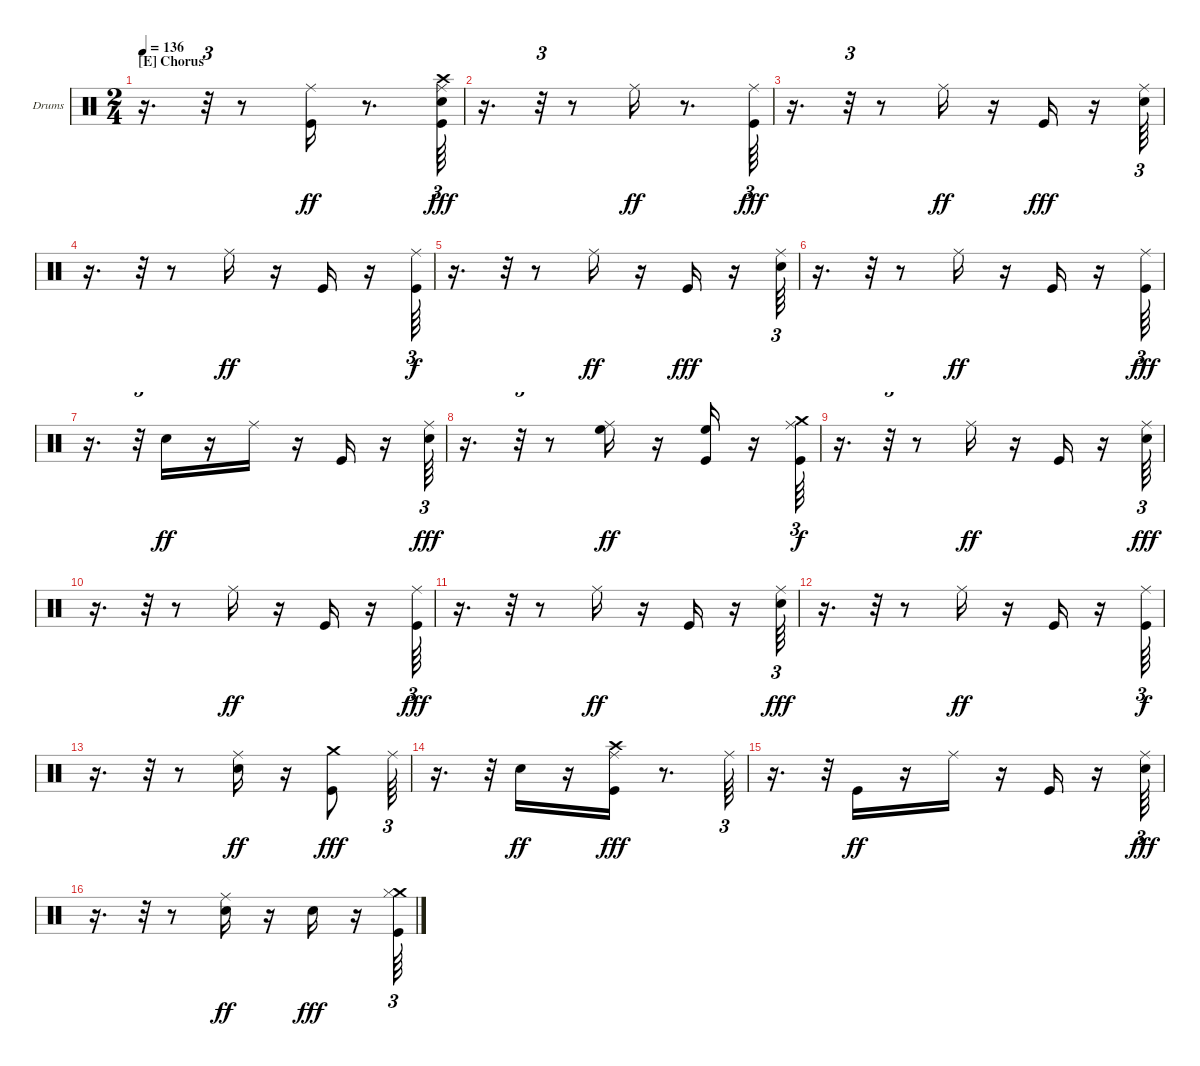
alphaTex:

\bracketExtendMode groupsimilarinstruments
\firstSystemTrackNameOrientation horizontal
\otherSystemsTrackNameOrientation horizontal
\track ("Drumkit" "Drums") {solo instrument percussion}
\staff {score}
\articulation defaults
\ts (2 4)
\section ("E" "Chorus")
\tempo 136
\clef neutral
\ks c
r.16{d dy fff} r.32{tu (3 2)} r.8 ("Ride (middle)" "Kick (hit)").16{dy ff} r.8{d} ("Crash high (hit)" "Ride (middle)" "Kick (hit)" "Snare (hit) 2").64{tu (3 2) dy fff} |
r.16{d} r.32{tu (3 2)} r.8 "Ride (middle)".16{dy ff} r.8{d} ("Ride (middle)" "Kick (hit)").64{tu (3 2) dy fff} |
r.16{d} r.32{tu (3 2)} r.8 "Ride (middle)".16{dy ff} r.16 "Kick (hit)".16{dy fff} r.16 ("Ride (middle)" "Snare (hit) 2").64{tu (3 2)} |
r.16{d} r.32{tu (3 2)} r.8 "Ride (middle)".16{dy ff} r.16 "Kick (hit)".16 r.16 ("Ride (middle)" "Kick (hit)").64{tu (3 2) dy f} |
r.16{d} r.32{tu (3 2)} r.8 "Ride (middle)".16{dy ff} r.16 "Kick (hit)".16{dy fff} r.16 ("Ride (middle)" "Snare (hit) 2").64{tu (3 2)} |
r.16{d} r.32{tu (3 2)} r.8 "Ride (middle)".16{dy ff} r.16 "Kick (hit)".16 r.16 ("Ride (middle)" "Kick (hit)").64{tu (3 2) dy fff} |
r.16{d} r.32{tu (3 2)} "Snare (hit) 2".16{dy ff} r.16 "Ride (middle)".16 r.16 "Kick (hit)".16 r.16 ("Ride (middle)" "Snare (hit) 2").64{tu (3 2) dy fff} |
r.16{d} r.32{tu (3 2)} r.8 ("Ride (middle)" "High Floor Tom (hit)").16{dy ff} r.16 ("Kick (hit)" "High Floor Tom (hit)").16 r.16 ("Ride (middle)" "Kick (hit)" "Crash medium (hit)").64{tu (3 2) dy f} |
r.16{d} r.32{tu (3 2)} r.8 "Ride (middle)".16{dy ff} r.16 "Kick (hit)".16 r.16 ("Ride (middle)" "Snare (hit) 2").64{tu (3 2) dy fff} |
r.16{d} r.32{tu (3 2)} r.8 "Ride (middle)".16{dy ff} r.16 "Kick (hit)".16 r.16 ("Ride (middle)" "Kick (hit)").64{tu (3 2) dy fff} |
r.16{d} r.32{tu (3 2)} r.8 "Ride (middle)".16{dy ff} r.16 "Kick (hit)".16 r.16 ("Ride (middle)" "Snare (hit) 2").64{tu (3 2) dy fff} |
r.16{d} r.32{tu (3 2)} r.8 "Ride (middle)".16{dy ff} r.16 "Kick (hit)".16 r.16 ("Ride (middle)" "Kick (hit)").64{tu (3 2) dy f} |
r.16{d} r.32{tu (3 2)} r.8 ("Ride (middle)" "Snare (hit) 2").16{dy ff} r.16 ("Crash medium (hit)" "Kick (hit)").8{dy fff} "Ride (middle)".64{tu (3 2)} |
r.16{d} r.32{tu (3 2)} "Snare (hit) 2".16{dy ff} r.16 ("Crash high (hit)" "Ride (middle)" "Kick (hit)").16{dy fff} r.8{d} "Ride (middle)".64{tu (3 2)} |
r.16{d} r.32{tu (3 2)} "Kick (hit)".16{dy ff} r.16 "Ride (middle)".16 r.16 "Kick (hit)".16 r.16 ("Ride (middle)" "Snare (hit) 2").64{tu (3 2) dy fff} |
r.16{d} r.32{tu (3 2)} r.8 ("Ride (middle)" "Snare (hit) 2").16{dy ff} r.16 "Snare (hit) 2".16{dy fff} r.16 ("Crash medium (hit)" "Hi-Hat (closed)" "Kick (hit)").64{tu (3 2)}
